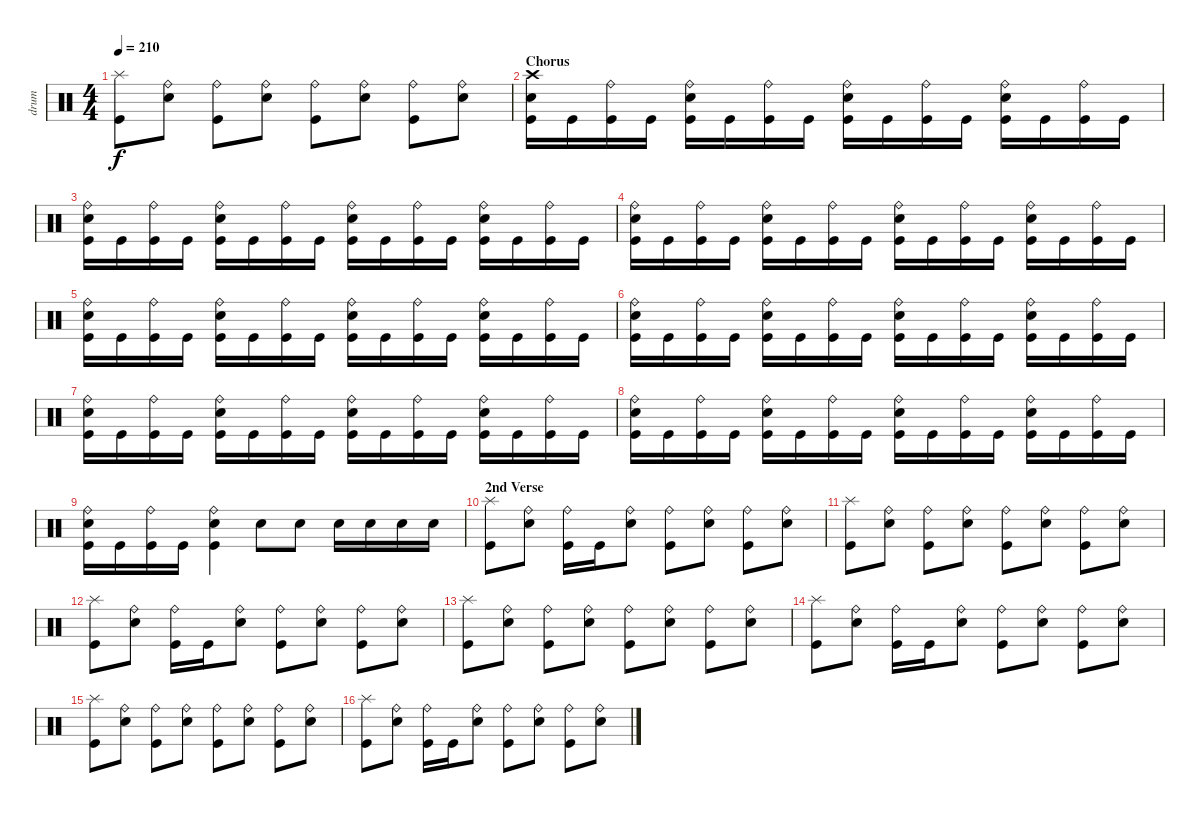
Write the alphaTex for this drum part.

\track ("drum" "drum") {instrument percussion}
\staff {score}
\articulation defaults
\ts (4 4)
\tempo 210
\clef neutral
\ks c
("Kick (hit)" "Splash (hit)").8{dy f} ("Electric Snare (hit)" "Ride (bell)").8 ("Kick (hit)" "Ride (bell)").8 ("Electric Snare (hit)" "Ride (bell)").8 ("Kick (hit)" "Ride (bell)").8 ("Electric Snare (hit)" "Ride (bell)").8 ("Kick (hit)" "Ride (bell)").8 ("Electric Snare (hit)" "Ride (bell)").8 |
\section ("" "Chorus")
("Kick (hit)" "Electric Snare (hit)" "Crash high (hit)").16 "Kick (hit)".16 ("Kick (hit)" "Ride (bell)").16 "Kick (hit)".16 ("Kick (hit)" "Electric Snare (hit)" "Ride (bell)").16 "Kick (hit)".16 ("Kick (hit)" "Ride (bell)").16 "Kick (hit)".16 ("Kick (hit)" "Electric Snare (hit)" "Ride (bell)").16 "Kick (hit)".16 ("Kick (hit)" "Ride (bell)").16 "Kick (hit)".16 ("Kick (hit)" "Electric Snare (hit)" "Ride (bell)").16 "Kick (hit)".16 ("Kick (hit)" "Ride (bell)").16 "Kick (hit)".16 |
("Kick (hit)" "Electric Snare (hit)" "Ride (bell)").16 "Kick (hit)".16 ("Kick (hit)" "Ride (bell)").16 "Kick (hit)".16 ("Kick (hit)" "Electric Snare (hit)" "Ride (bell)").16 "Kick (hit)".16 ("Kick (hit)" "Ride (bell)").16 "Kick (hit)".16 ("Kick (hit)" "Electric Snare (hit)" "Ride (bell)").16 "Kick (hit)".16 ("Kick (hit)" "Ride (bell)").16 "Kick (hit)".16 ("Kick (hit)" "Electric Snare (hit)" "Ride (bell)").16 "Kick (hit)".16 ("Kick (hit)" "Ride (bell)").16 "Kick (hit)".16 |
("Kick (hit)" "Electric Snare (hit)" "Ride (bell)").16 "Kick (hit)".16 ("Kick (hit)" "Ride (bell)").16 "Kick (hit)".16 ("Kick (hit)" "Electric Snare (hit)" "Ride (bell)").16 "Kick (hit)".16 ("Kick (hit)" "Ride (bell)").16 "Kick (hit)".16 ("Kick (hit)" "Electric Snare (hit)" "Ride (bell)").16 "Kick (hit)".16 ("Kick (hit)" "Ride (bell)").16 "Kick (hit)".16 ("Kick (hit)" "Electric Snare (hit)" "Ride (bell)").16 "Kick (hit)".16 ("Kick (hit)" "Ride (bell)").16 "Kick (hit)".16 |
("Kick (hit)" "Electric Snare (hit)" "Ride (bell)").16 "Kick (hit)".16 ("Kick (hit)" "Ride (bell)").16 "Kick (hit)".16 ("Kick (hit)" "Electric Snare (hit)" "Ride (bell)").16 "Kick (hit)".16 ("Kick (hit)" "Ride (bell)").16 "Kick (hit)".16 ("Kick (hit)" "Electric Snare (hit)" "Ride (bell)").16 "Kick (hit)".16 ("Kick (hit)" "Ride (bell)").16 "Kick (hit)".16 ("Kick (hit)" "Electric Snare (hit)" "Ride (bell)").16 "Kick (hit)".16 ("Kick (hit)" "Ride (bell)").16 "Kick (hit)".16 |
("Kick (hit)" "Electric Snare (hit)" "Ride (bell)").16 "Kick (hit)".16 ("Kick (hit)" "Ride (bell)").16 "Kick (hit)".16 ("Kick (hit)" "Electric Snare (hit)" "Ride (bell)").16 "Kick (hit)".16 ("Kick (hit)" "Ride (bell)").16 "Kick (hit)".16 ("Kick (hit)" "Electric Snare (hit)" "Ride (bell)").16 "Kick (hit)".16 ("Kick (hit)" "Ride (bell)").16 "Kick (hit)".16 ("Kick (hit)" "Electric Snare (hit)" "Ride (bell)").16 "Kick (hit)".16 ("Kick (hit)" "Ride (bell)").16 "Kick (hit)".16 |
("Kick (hit)" "Electric Snare (hit)" "Ride (bell)").16 "Kick (hit)".16 ("Kick (hit)" "Ride (bell)").16 "Kick (hit)".16 ("Kick (hit)" "Electric Snare (hit)" "Ride (bell)").16 "Kick (hit)".16 ("Kick (hit)" "Ride (bell)").16 "Kick (hit)".16 ("Kick (hit)" "Electric Snare (hit)" "Ride (bell)").16 "Kick (hit)".16 ("Kick (hit)" "Ride (bell)").16 "Kick (hit)".16 ("Kick (hit)" "Electric Snare (hit)" "Ride (bell)").16 "Kick (hit)".16 ("Kick (hit)" "Ride (bell)").16 "Kick (hit)".16 |
("Kick (hit)" "Electric Snare (hit)" "Ride (bell)").16 "Kick (hit)".16 ("Kick (hit)" "Ride (bell)").16 "Kick (hit)".16 ("Kick (hit)" "Electric Snare (hit)" "Ride (bell)").16 "Kick (hit)".16 ("Kick (hit)" "Ride (bell)").16 "Kick (hit)".16 ("Kick (hit)" "Electric Snare (hit)" "Ride (bell)").16 "Kick (hit)".16 ("Kick (hit)" "Ride (bell)").16 "Kick (hit)".16 ("Kick (hit)" "Electric Snare (hit)" "Ride (bell)").16 "Kick (hit)".16 ("Kick (hit)" "Ride (bell)").16 "Kick (hit)".16 |
("Kick (hit)" "Electric Snare (hit)" "Ride (bell)").16 "Kick (hit)".16 ("Kick (hit)" "Ride (bell)").16 "Kick (hit)".16 ("Kick (hit)" "Electric Snare (hit)" "Ride (bell)").4 "Electric Snare (hit)".8 "Electric Snare (hit)".8 "Electric Snare (hit)".16 "Electric Snare (hit)".16 "Electric Snare (hit)".16 "Electric Snare (hit)".16 |
\section ("" "2nd Verse")
("Kick (hit)" "Splash (hit)").8 ("Electric Snare (hit)" "Ride (bell)").8 ("Kick (hit)" "Ride (bell)").16 "Kick (hit)".16 ("Electric Snare (hit)" "Ride (bell)").8 ("Kick (hit)" "Ride (bell)").8 ("Electric Snare (hit)" "Ride (bell)").8 ("Kick (hit)" "Ride (bell)").8 ("Electric Snare (hit)" "Ride (bell)").8 |
("Kick (hit)" "Splash (hit)").8 ("Electric Snare (hit)" "Ride (bell)").8 ("Kick (hit)" "Ride (bell)").8 ("Electric Snare (hit)" "Ride (bell)").8 ("Kick (hit)" "Ride (bell)").8 ("Electric Snare (hit)" "Ride (bell)").8 ("Kick (hit)" "Ride (bell)").8 ("Electric Snare (hit)" "Ride (bell)").8 |
("Kick (hit)" "Splash (hit)").8 ("Electric Snare (hit)" "Ride (bell)").8 ("Kick (hit)" "Ride (bell)").16 "Kick (hit)".16 ("Electric Snare (hit)" "Ride (bell)").8 ("Kick (hit)" "Ride (bell)").8 ("Electric Snare (hit)" "Ride (bell)").8 ("Kick (hit)" "Ride (bell)").8 ("Electric Snare (hit)" "Ride (bell)").8 |
("Kick (hit)" "Splash (hit)").8 ("Electric Snare (hit)" "Ride (bell)").8 ("Kick (hit)" "Ride (bell)").8 ("Electric Snare (hit)" "Ride (bell)").8 ("Kick (hit)" "Ride (bell)").8 ("Electric Snare (hit)" "Ride (bell)").8 ("Kick (hit)" "Ride (bell)").8 ("Electric Snare (hit)" "Ride (bell)").8 |
("Kick (hit)" "Splash (hit)").8 ("Electric Snare (hit)" "Ride (bell)").8 ("Kick (hit)" "Ride (bell)").16 "Kick (hit)".16 ("Electric Snare (hit)" "Ride (bell)").8 ("Kick (hit)" "Ride (bell)").8 ("Electric Snare (hit)" "Ride (bell)").8 ("Kick (hit)" "Ride (bell)").8 ("Electric Snare (hit)" "Ride (bell)").8 |
("Kick (hit)" "Splash (hit)").8 ("Electric Snare (hit)" "Ride (bell)").8 ("Kick (hit)" "Ride (bell)").8 ("Electric Snare (hit)" "Ride (bell)").8 ("Kick (hit)" "Ride (bell)").8 ("Electric Snare (hit)" "Ride (bell)").8 ("Kick (hit)" "Ride (bell)").8 ("Electric Snare (hit)" "Ride (bell)").8 |
("Kick (hit)" "Splash (hit)").8 ("Electric Snare (hit)" "Ride (bell)").8 ("Kick (hit)" "Ride (bell)").16 "Kick (hit)".16 ("Electric Snare (hit)" "Ride (bell)").8 ("Kick (hit)" "Ride (bell)").8 ("Electric Snare (hit)" "Ride (bell)").8 ("Kick (hit)" "Ride (bell)").8 ("Electric Snare (hit)" "Ride (bell)").8
